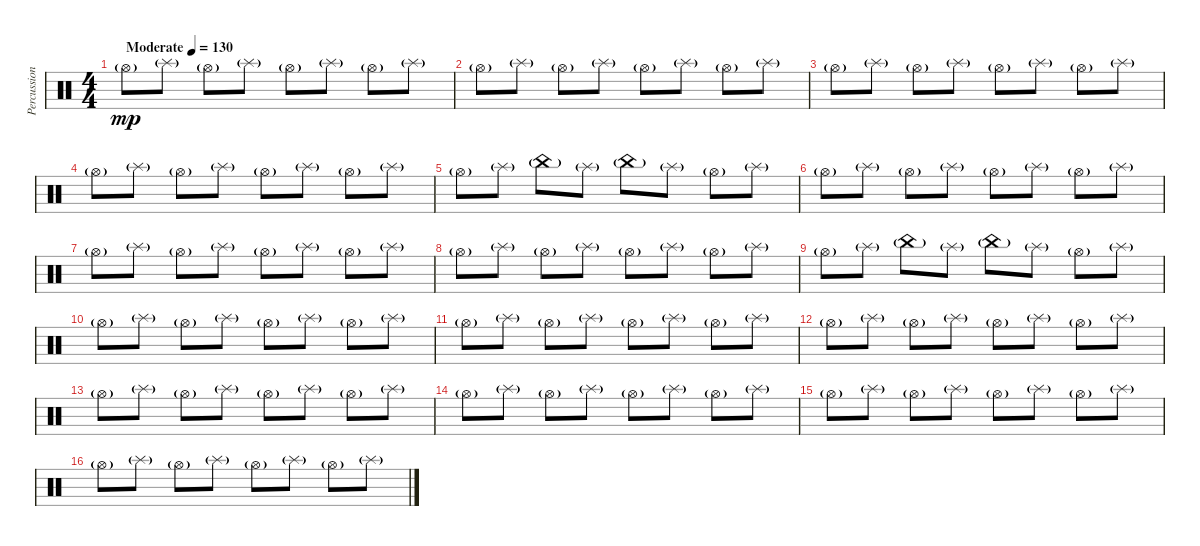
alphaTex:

\track ("Percussion" "Percussion") {instrument percussion}
\staff {score}
\articulation defaults
\ts (4 4)
\tempo (130 "Moderate")
\clef neutral
\ks c "Hi-Hat (open)"{g}.8{dy mp} "Splash (hit)"{g}.8 "Hi-Hat (open)"{g}.8 "Splash (hit)"{g}.8 "Hi-Hat (open)"{g}.8 "Splash (hit)"{g}.8 "Hi-Hat (open)"{g}.8 "Splash (hit)"{g}.8
|
"Hi-Hat (open)"{g}.8 "Splash (hit)"{g}.8 "Hi-Hat (open)"{g}.8 "Splash (hit)"{g}.8 "Hi-Hat (open)"{g}.8 "Splash (hit)"{g}.8 "Hi-Hat (open)"{g}.8 "Splash (hit)"{g}.8 |
"Hi-Hat (open)"{g}.8 "Splash (hit)"{g}.8 "Hi-Hat (open)"{g}.8 "Splash (hit)"{g}.8 "Hi-Hat (open)"{g}.8 "Splash (hit)"{g}.8 "Hi-Hat (open)"{g}.8 "Splash (hit)"{g}.8 |
"Hi-Hat (open)"{g}.8 "Splash (hit)"{g}.8 "Hi-Hat (open)"{g}.8 "Splash (hit)"{g}.8 "Hi-Hat (open)"{g}.8 "Splash (hit)"{g}.8 "Hi-Hat (open)"{g}.8 "Splash (hit)"{g}.8 |
"Hi-Hat (open)"{g}.8 "Splash (hit)"{g}.8 "China (hit)"{g}.8 "Splash (hit)"{g}.8 "China (hit)"{g}.8 "Splash (hit)"{g}.8 "Hi-Hat (open)"{g}.8 "Splash (hit)"{g}.8 |
"Hi-Hat (open)"{g}.8 "Splash (hit)"{g}.8 "Hi-Hat (open)"{g}.8 "Splash (hit)"{g}.8 "Hi-Hat (open)"{g}.8 "Splash (hit)"{g}.8 "Hi-Hat (open)"{g}.8 "Splash (hit)"{g}.8 |
"Hi-Hat (open)"{g}.8 "Splash (hit)"{g}.8 "Hi-Hat (open)"{g}.8 "Splash (hit)"{g}.8 "Hi-Hat (open)"{g}.8 "Splash (hit)"{g}.8 "Hi-Hat (open)"{g}.8 "Splash (hit)"{g}.8 |
"Hi-Hat (open)"{g}.8 "Splash (hit)"{g}.8 "Hi-Hat (open)"{g}.8 "Splash (hit)"{g}.8 "Hi-Hat (open)"{g}.8 "Splash (hit)"{g}.8 "Hi-Hat (open)"{g}.8 "Splash (hit)"{g}.8 |
"Hi-Hat (open)"{g}.8 "Splash (hit)"{g}.8 "China (hit)"{g}.8 "Splash (hit)"{g}.8 "China (hit)"{g}.8 "Splash (hit)"{g}.8 "Hi-Hat (open)"{g}.8 "Splash (hit)"{g}.8 |
"Hi-Hat (open)"{g}.8 "Splash (hit)"{g}.8 "Hi-Hat (open)"{g}.8 "Splash (hit)"{g}.8 "Hi-Hat (open)"{g}.8 "Splash (hit)"{g}.8 "Hi-Hat (open)"{g}.8 "Splash (hit)"{g}.8 |
"Hi-Hat (open)"{g}.8 "Splash (hit)"{g}.8 "Hi-Hat (open)"{g}.8 "Splash (hit)"{g}.8 "Hi-Hat (open)"{g}.8 "Splash (hit)"{g}.8 "Hi-Hat (open)"{g}.8 "Splash (hit)"{g}.8 |
"Hi-Hat (open)"{g}.8 "Splash (hit)"{g}.8 "Hi-Hat (open)"{g}.8 "Splash (hit)"{g}.8 "Hi-Hat (open)"{g}.8 "Splash (hit)"{g}.8 "Hi-Hat (open)"{g}.8 "Splash (hit)"{g}.8 |
"Hi-Hat (open)"{g}.8 "Splash (hit)"{g}.8 "Hi-Hat (open)"{g}.8 "Splash (hit)"{g}.8 "Hi-Hat (open)"{g}.8 "Splash (hit)"{g}.8 "Hi-Hat (open)"{g}.8 "Splash (hit)"{g}.8 |
"Hi-Hat (open)"{g}.8 "Splash (hit)"{g}.8 "Hi-Hat (open)"{g}.8 "Splash (hit)"{g}.8 "Hi-Hat (open)"{g}.8 "Splash (hit)"{g}.8 "Hi-Hat (open)"{g}.8 "Splash (hit)"{g}.8 |
"Hi-Hat (open)"{g}.8 "Splash (hit)"{g}.8 "Hi-Hat (open)"{g}.8 "Splash (hit)"{g}.8 "Hi-Hat (open)"{g}.8 "Splash (hit)"{g}.8 "Hi-Hat (open)"{g}.8 "Splash (hit)"{g}.8 |
"Hi-Hat (open)"{g}.8 "Splash (hit)"{g}.8 "Hi-Hat (open)"{g}.8 "Splash (hit)"{g}.8 "Hi-Hat (open)"{g}.8 "Splash (hit)"{g}.8 "Hi-Hat (open)"{g}.8 "Splash (hit)"{g}.8
